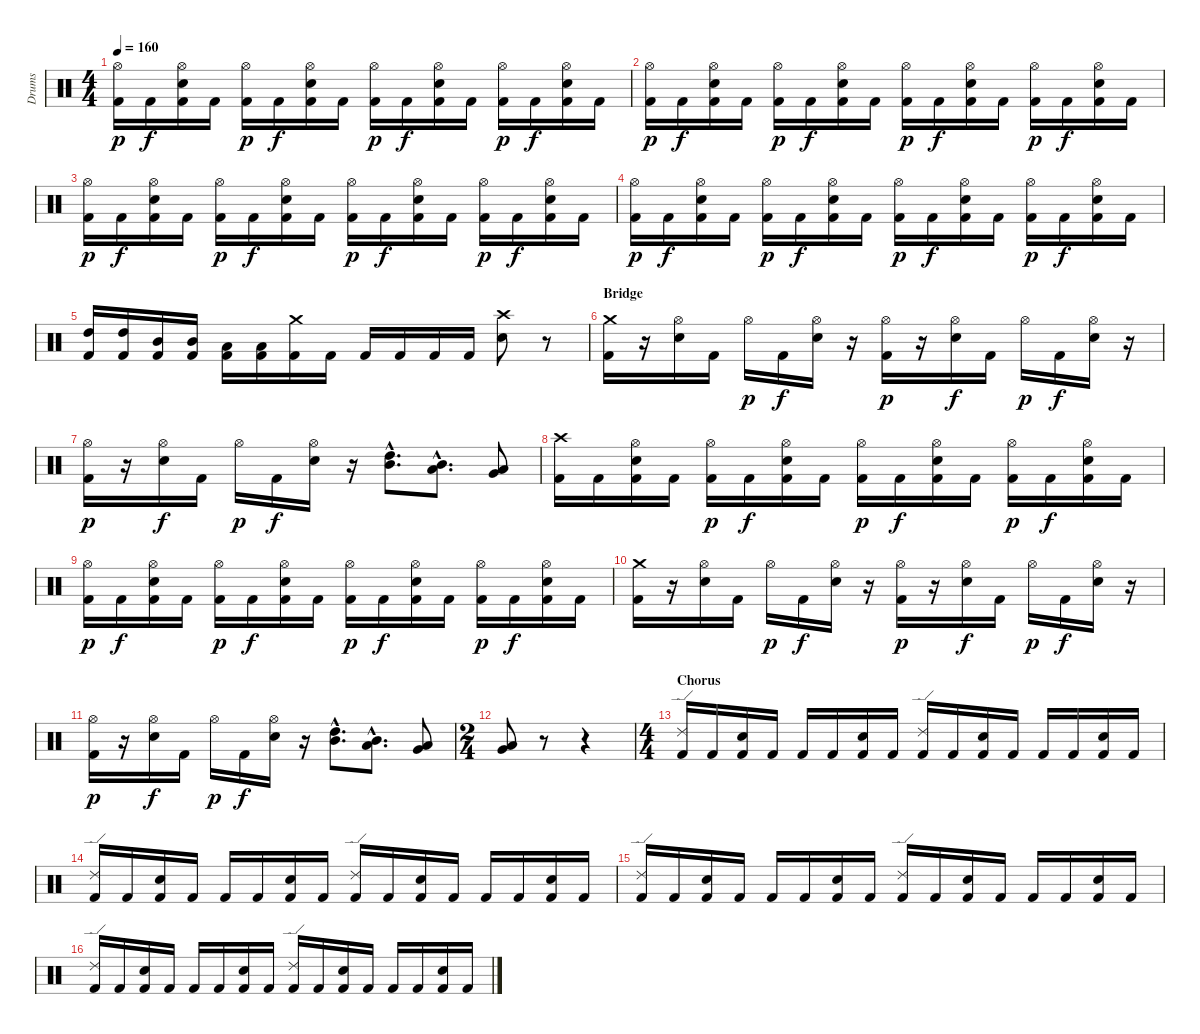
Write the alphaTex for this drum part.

\track ("Drums" "Drums") {instrument percussion}
\staff {score}
\articulation defaults
\ts (4 4)
\tempo 160
\clef neutral
\ks c
("Hi-Hat (open)" "Kick (hit) 2").16{dy p} "Kick (hit) 2".16{dy f} ("Hi-Hat (open)" "Electric Snare (hit)" "Kick (hit) 2").16 "Kick (hit) 2".16 ("Hi-Hat (open)" "Kick (hit) 2").16{dy p} "Kick (hit) 2".16{dy f} ("Hi-Hat (open)" "Electric Snare (hit)" "Kick (hit) 2").16 "Kick (hit) 2".16 ("Hi-Hat (open)" "Kick (hit) 2").16{dy p} "Kick (hit) 2".16{dy f} ("Hi-Hat (open)" "Electric Snare (hit)" "Kick (hit) 2").16 "Kick (hit) 2".16 ("Hi-Hat (open)" "Kick (hit) 2").16{dy p} "Kick (hit) 2".16{dy f} ("Hi-Hat (open)" "Electric Snare (hit)" "Kick (hit) 2").16 "Kick (hit) 2".16 |
("Hi-Hat (open)" "Kick (hit) 2").16{dy p} "Kick (hit) 2".16{dy f} ("Hi-Hat (open)" "Electric Snare (hit)" "Kick (hit) 2").16 "Kick (hit) 2".16 ("Hi-Hat (open)" "Kick (hit) 2").16{dy p} "Kick (hit) 2".16{dy f} ("Hi-Hat (open)" "Electric Snare (hit)" "Kick (hit) 2").16 "Kick (hit) 2".16 ("Hi-Hat (open)" "Kick (hit) 2").16{dy p} "Kick (hit) 2".16{dy f} ("Hi-Hat (open)" "Electric Snare (hit)" "Kick (hit) 2").16 "Kick (hit) 2".16 ("Hi-Hat (open)" "Kick (hit) 2").16{dy p} "Kick (hit) 2".16{dy f} ("Hi-Hat (open)" "Electric Snare (hit)" "Kick (hit) 2").16 "Kick (hit) 2".16 |
("Hi-Hat (open)" "Kick (hit) 2").16{dy p} "Kick (hit) 2".16{dy f} ("Hi-Hat (open)" "Electric Snare (hit)" "Kick (hit) 2").16 "Kick (hit) 2".16 ("Hi-Hat (open)" "Kick (hit) 2").16{dy p} "Kick (hit) 2".16{dy f} ("Hi-Hat (open)" "Electric Snare (hit)" "Kick (hit) 2").16 "Kick (hit) 2".16 ("Hi-Hat (open)" "Kick (hit) 2").16{dy p} "Kick (hit) 2".16{dy f} ("Hi-Hat (open)" "Electric Snare (hit)" "Kick (hit) 2").16 "Kick (hit) 2".16 ("Hi-Hat (open)" "Kick (hit) 2").16{dy p} "Kick (hit) 2".16{dy f} ("Hi-Hat (open)" "Electric Snare (hit)" "Kick (hit) 2").16 "Kick (hit) 2".16 |
("Hi-Hat (open)" "Kick (hit) 2").16{dy p} "Kick (hit) 2".16{dy f} ("Hi-Hat (open)" "Electric Snare (hit)" "Kick (hit) 2").16 "Kick (hit) 2".16 ("Hi-Hat (open)" "Kick (hit) 2").16{dy p} "Kick (hit) 2".16{dy f} ("Hi-Hat (open)" "Electric Snare (hit)" "Kick (hit) 2").16 "Kick (hit) 2".16 ("Hi-Hat (open)" "Kick (hit) 2").16{dy p} "Kick (hit) 2".16{dy f} ("Hi-Hat (open)" "Electric Snare (hit)" "Kick (hit) 2").16 "Kick (hit) 2".16 ("Hi-Hat (open)" "Kick (hit) 2").16{dy p} "Kick (hit) 2".16{dy f} ("Hi-Hat (open)" "Electric Snare (hit)" "Kick (hit) 2").16 "Kick (hit) 2".16 |
("High Tom (hit)" "Kick (hit) 2").16 ("High Tom (hit)" "Kick (hit) 2").16 ("Mid Tom (hit)" "Kick (hit) 2").16 ("Mid Tom (hit)" "Kick (hit) 2").16 ("Low Tom (hit)" "Kick (hit) 2").16 ("Low Tom (hit)" "Kick (hit) 2").16 ("Crash medium (hit)" "Kick (hit) 2").16 "Kick (hit) 2".16 "Kick (hit) 2".16 "Kick (hit) 2".16 "Kick (hit) 2".16 "Kick (hit) 2".16 ("Crash high (hit)" "Electric Snare (hit)").8 r.8 |
\section ("" "Bridge")
("Crash medium (hit)" "Kick (hit) 2").16 r.16 ("Hi-Hat (open)" "Electric Snare (hit)").16 "Kick (hit) 2".16 "Hi-Hat (open)".16{dy p} "Kick (hit) 2".16{dy f} ("Hi-Hat (open)" "Electric Snare (hit)").16 r.16 ("Hi-Hat (open)" "Kick (hit) 2").16{dy p} r.16 ("Hi-Hat (open)" "Electric Snare (hit)").16{dy f} "Kick (hit) 2".16 "Hi-Hat (open)".16{dy p} "Kick (hit) 2".16{dy f} ("Hi-Hat (open)" "Electric Snare (hit)").16 r.16 |
("Hi-Hat (open)" "Kick (hit) 2").16{dy p} r.16 ("Hi-Hat (open)" "Electric Snare (hit)").16{dy f} "Kick (hit) 2".16 "Hi-Hat (open)".16{dy p} "Kick (hit) 2".16{dy f} ("Hi-Hat (open)" "Electric Snare (hit)").16 r.16 ("High Tom (hit)"{hac} "Mid Tom (hit)"{hac}).8{d} ("Mid Tom (hit)"{hac} "Low Tom (hit)"{hac}).8{d} ("Low Tom (hit)" "Very Low Tom (hit)").8 |
("Crash high (hit)" "Kick (hit) 2").16 "Kick (hit) 2".16 ("Hi-Hat (open)" "Electric Snare (hit)" "Kick (hit) 2").16 "Kick (hit) 2".16 ("Hi-Hat (open)" "Kick (hit) 2").16{dy p} "Kick (hit) 2".16{dy f} ("Hi-Hat (open)" "Electric Snare (hit)" "Kick (hit) 2").16 "Kick (hit) 2".16 ("Hi-Hat (open)" "Kick (hit) 2").16{dy p} "Kick (hit) 2".16{dy f} ("Hi-Hat (open)" "Electric Snare (hit)" "Kick (hit) 2").16 "Kick (hit) 2".16 ("Hi-Hat (open)" "Kick (hit) 2").16{dy p} "Kick (hit) 2".16{dy f} ("Hi-Hat (open)" "Electric Snare (hit)" "Kick (hit) 2").16 "Kick (hit) 2".16 |
("Hi-Hat (open)" "Kick (hit) 2").16{dy p} "Kick (hit) 2".16{dy f} ("Hi-Hat (open)" "Electric Snare (hit)" "Kick (hit) 2").16 "Kick (hit) 2".16 ("Hi-Hat (open)" "Kick (hit) 2").16{dy p} "Kick (hit) 2".16{dy f} ("Hi-Hat (open)" "Electric Snare (hit)" "Kick (hit) 2").16 "Kick (hit) 2".16 ("Hi-Hat (open)" "Kick (hit) 2").16{dy p} "Kick (hit) 2".16{dy f} ("Hi-Hat (open)" "Electric Snare (hit)" "Kick (hit) 2").16 "Kick (hit) 2".16 ("Hi-Hat (open)" "Kick (hit) 2").16{dy p} "Kick (hit) 2".16{dy f} ("Hi-Hat (open)" "Electric Snare (hit)" "Kick (hit) 2").16 "Kick (hit) 2".16 |
("Crash medium (hit)" "Kick (hit) 2").16 r.16 ("Hi-Hat (open)" "Electric Snare (hit)").16 "Kick (hit) 2".16 "Hi-Hat (open)".16{dy p} "Kick (hit) 2".16{dy f} ("Hi-Hat (open)" "Electric Snare (hit)").16 r.16 ("Hi-Hat (open)" "Kick (hit) 2").16{dy p} r.16 ("Hi-Hat (open)" "Electric Snare (hit)").16{dy f} "Kick (hit) 2".16 "Hi-Hat (open)".16{dy p} "Kick (hit) 2".16{dy f} ("Hi-Hat (open)" "Electric Snare (hit)").16 r.16 |
("Hi-Hat (open)" "Kick (hit) 2").16{dy p} r.16 ("Hi-Hat (open)" "Electric Snare (hit)").16{dy f} "Kick (hit) 2".16 "Hi-Hat (open)".16{dy p} "Kick (hit) 2".16{dy f} ("Hi-Hat (open)" "Electric Snare (hit)").16 r.16 ("High Tom (hit)"{hac} "Mid Tom (hit)"{hac}).8{d} ("Mid Tom (hit)"{hac} "Low Tom (hit)"{hac}).8{d} ("Low Tom (hit)" "Very Low Tom (hit)").8 |
\ts (2 4)
("Very Low Tom (hit)" "Low Floor Tom (hit)").8 r.8 r.4 |
\ts (4 4)
\section ("" "Chorus")
("Ride (edge) 2" "Kick (hit) 2").16 "Kick (hit) 2".16 ("Electric Snare (hit)" "Kick (hit) 2").16 "Kick (hit) 2".16 "Kick (hit) 2".16 "Kick (hit) 2".16 ("Electric Snare (hit)" "Kick (hit) 2").16 "Kick (hit) 2".16 ("Ride (edge) 2" "Kick (hit) 2").16 "Kick (hit) 2".16 ("Electric Snare (hit)" "Kick (hit) 2").16 "Kick (hit) 2".16 "Kick (hit) 2".16 "Kick (hit) 2".16 ("Electric Snare (hit)" "Kick (hit) 2").16 "Kick (hit) 2".16 |
("Ride (edge) 2" "Kick (hit) 2").16 "Kick (hit) 2".16 ("Electric Snare (hit)" "Kick (hit) 2").16 "Kick (hit) 2".16 "Kick (hit) 2".16 "Kick (hit) 2".16 ("Electric Snare (hit)" "Kick (hit) 2").16 "Kick (hit) 2".16 ("Ride (edge) 2" "Kick (hit) 2").16 "Kick (hit) 2".16 ("Electric Snare (hit)" "Kick (hit) 2").16 "Kick (hit) 2".16 "Kick (hit) 2".16 "Kick (hit) 2".16 ("Electric Snare (hit)" "Kick (hit) 2").16 "Kick (hit) 2".16 |
("Ride (edge) 2" "Kick (hit) 2").16 "Kick (hit) 2".16 ("Electric Snare (hit)" "Kick (hit) 2").16 "Kick (hit) 2".16 "Kick (hit) 2".16 "Kick (hit) 2".16 ("Electric Snare (hit)" "Kick (hit) 2").16 "Kick (hit) 2".16 ("Ride (edge) 2" "Kick (hit) 2").16 "Kick (hit) 2".16 ("Electric Snare (hit)" "Kick (hit) 2").16 "Kick (hit) 2".16 "Kick (hit) 2".16 "Kick (hit) 2".16 ("Electric Snare (hit)" "Kick (hit) 2").16 "Kick (hit) 2".16 |
("Ride (edge) 2" "Kick (hit) 2").16 "Kick (hit) 2".16 ("Electric Snare (hit)" "Kick (hit) 2").16 "Kick (hit) 2".16 "Kick (hit) 2".16 "Kick (hit) 2".16 ("Electric Snare (hit)" "Kick (hit) 2").16 "Kick (hit) 2".16 ("Ride (edge) 2" "Kick (hit) 2").16 "Kick (hit) 2".16 ("Electric Snare (hit)" "Kick (hit) 2").16 "Kick (hit) 2".16 "Kick (hit) 2".16 "Kick (hit) 2".16 ("Electric Snare (hit)" "Kick (hit) 2").16 "Kick (hit) 2".16
